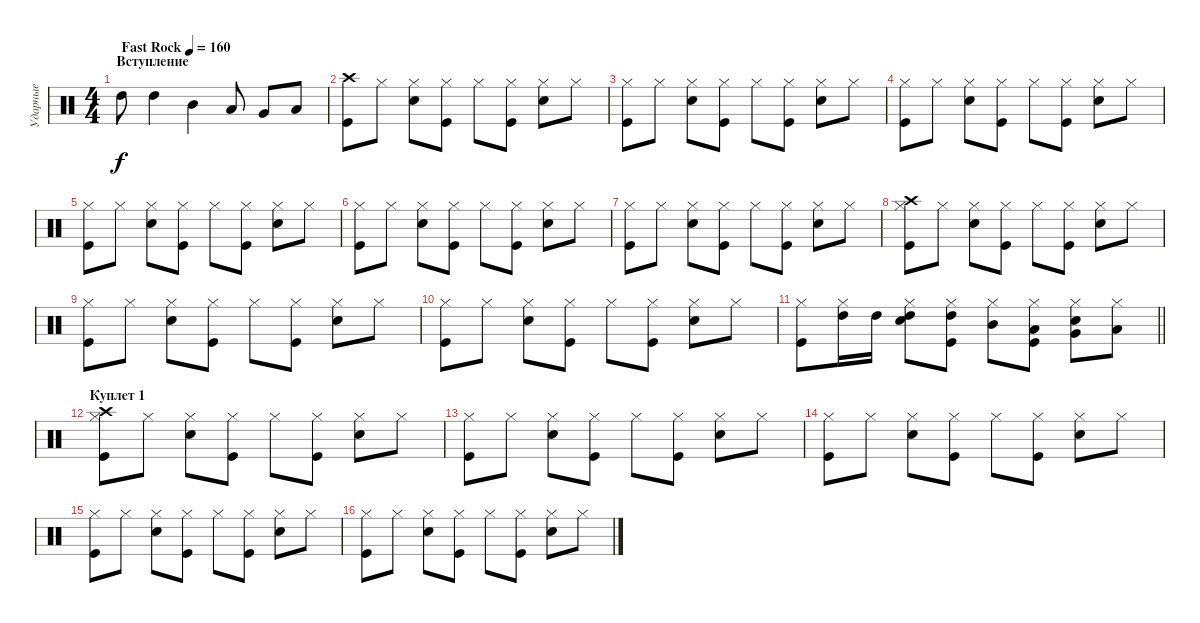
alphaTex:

\track ("Ударные" "Ударные") {instrument percussion}
\staff {score}
\articulation defaults
\ts (4 4)
\section ("" "Вступление")
\tempo (160 "Fast Rock")
\clef neutral
\ks c "High Tom (hit)".8{dy f} "High Tom (hit)".4 "Mid Tom (hit)".4 "Low Tom (hit)".8 "Very Low Tom (hit)".8 "Low Floor Tom (hit)".8
|
("Kick (hit)" "Crash high (hit)").8 "Hi-Hat (closed)".8 ("Snare (hit) 2" "Hi-Hat (closed)").8 ("Kick (hit)" "Hi-Hat (closed)").8 "Hi-Hat (closed)".8 ("Kick (hit)" "Hi-Hat (closed)").8 ("Snare (hit) 2" "Hi-Hat (closed)").8 "Hi-Hat (closed)".8 |
("Kick (hit)" "Hi-Hat (closed)").8 "Hi-Hat (closed)".8 ("Snare (hit) 2" "Hi-Hat (closed)").8 ("Kick (hit)" "Hi-Hat (closed)").8 "Hi-Hat (closed)".8 ("Kick (hit)" "Hi-Hat (closed)").8 ("Snare (hit) 2" "Hi-Hat (closed)").8 "Hi-Hat (closed)".8 |
("Kick (hit)" "Hi-Hat (closed)").8 "Hi-Hat (closed)".8 ("Snare (hit) 2" "Hi-Hat (closed)").8 ("Kick (hit)" "Hi-Hat (closed)").8 "Hi-Hat (closed)".8 ("Kick (hit)" "Hi-Hat (closed)").8 ("Snare (hit) 2" "Hi-Hat (closed)").8 "Hi-Hat (closed)".8 |
("Kick (hit)" "Hi-Hat (closed)").8 "Hi-Hat (closed)".8 ("Snare (hit) 2" "Hi-Hat (closed)").8 ("Kick (hit)" "Hi-Hat (closed)").8 "Hi-Hat (closed)".8 ("Kick (hit)" "Hi-Hat (closed)").8 ("Snare (hit) 2" "Hi-Hat (closed)").8 "Hi-Hat (closed)".8 |
("Kick (hit)" "Hi-Hat (closed)").8 "Hi-Hat (closed)".8 ("Snare (hit) 2" "Hi-Hat (closed)").8 ("Kick (hit)" "Hi-Hat (closed)").8 "Hi-Hat (closed)".8 ("Kick (hit)" "Hi-Hat (closed)").8 ("Snare (hit) 2" "Hi-Hat (closed)").8 "Hi-Hat (closed)".8 |
("Kick (hit)" "Hi-Hat (closed)").8 "Hi-Hat (closed)".8 ("Snare (hit) 2" "Hi-Hat (closed)").8 ("Kick (hit)" "Hi-Hat (closed)").8 "Hi-Hat (closed)".8 ("Kick (hit)" "Hi-Hat (closed)").8 ("Snare (hit) 2" "Hi-Hat (closed)").8 "Hi-Hat (closed)".8 |
("Kick (hit)" "Crash high (hit)" "Hi-Hat (closed)").8 "Hi-Hat (closed)".8 ("Snare (hit) 2" "Hi-Hat (closed)").8 ("Kick (hit)" "Hi-Hat (closed)").8 "Hi-Hat (closed)".8 ("Kick (hit)" "Hi-Hat (closed)").8 ("Snare (hit) 2" "Hi-Hat (closed)").8 "Hi-Hat (closed)".8 |
("Kick (hit)" "Hi-Hat (closed)").8 "Hi-Hat (closed)".8 ("Snare (hit) 2" "Hi-Hat (closed)").8 ("Kick (hit)" "Hi-Hat (closed)").8 "Hi-Hat (closed)".8 ("Kick (hit)" "Hi-Hat (closed)").8 ("Snare (hit) 2" "Hi-Hat (closed)").8 "Hi-Hat (closed)".8 |
("Kick (hit)" "Hi-Hat (closed)").8 "Hi-Hat (closed)".8 ("Snare (hit) 2" "Hi-Hat (closed)").8 ("Kick (hit)" "Hi-Hat (closed)").8 "Hi-Hat (closed)".8 ("Kick (hit)" "Hi-Hat (closed)").8 ("Snare (hit) 2" "Hi-Hat (closed)").8 "Hi-Hat (closed)".8 |
\barLineRight lightlight
("Kick (hit)" "Hi-Hat (closed)").8 ("High Tom (hit)" "Hi-Hat (closed)").16 "High Tom (hit)".16 ("Snare (hit) 2" "High Tom (hit)" "Hi-Hat (closed)").8 ("Kick (hit)" "High Tom (hit)" "Hi-Hat (closed)").8 ("Mid Tom (hit)" "Hi-Hat (closed)").8 ("Kick (hit)" "Low Tom (hit)" "Hi-Hat (closed)").8 ("Snare (hit) 2" "Very Low Tom (hit)" "Hi-Hat (closed)").8 ("Low Floor Tom (hit)" "Hi-Hat (closed)").8 |
\section ("" "Куплет 1")
("Kick (hit)" "Crash high (hit)" "Hi-Hat (closed)").8 "Hi-Hat (closed)".8 ("Snare (hit) 2" "Hi-Hat (closed)").8 ("Kick (hit)" "Hi-Hat (closed)").8 "Hi-Hat (closed)".8 ("Kick (hit)" "Hi-Hat (closed)").8 ("Snare (hit) 2" "Hi-Hat (closed)").8 "Hi-Hat (closed)".8 |
("Kick (hit)" "Hi-Hat (closed)").8 "Hi-Hat (closed)".8 ("Snare (hit) 2" "Hi-Hat (closed)").8 ("Kick (hit)" "Hi-Hat (closed)").8 "Hi-Hat (closed)".8 ("Kick (hit)" "Hi-Hat (closed)").8 ("Snare (hit) 2" "Hi-Hat (closed)").8 "Hi-Hat (closed)".8 |
("Kick (hit)" "Hi-Hat (closed)").8 "Hi-Hat (closed)".8 ("Snare (hit) 2" "Hi-Hat (closed)").8 ("Kick (hit)" "Hi-Hat (closed)").8 "Hi-Hat (closed)".8 ("Kick (hit)" "Hi-Hat (closed)").8 ("Snare (hit) 2" "Hi-Hat (closed)").8 "Hi-Hat (closed)".8 |
("Kick (hit)" "Hi-Hat (closed)").8 "Hi-Hat (closed)".8 ("Snare (hit) 2" "Hi-Hat (closed)").8 ("Kick (hit)" "Hi-Hat (closed)").8 "Hi-Hat (closed)".8 ("Kick (hit)" "Hi-Hat (closed)").8 ("Snare (hit) 2" "Hi-Hat (closed)").8 "Hi-Hat (closed)".8 |
("Kick (hit)" "Hi-Hat (closed)").8 "Hi-Hat (closed)".8 ("Snare (hit) 2" "Hi-Hat (closed)").8 ("Kick (hit)" "Hi-Hat (closed)").8 "Hi-Hat (closed)".8 ("Kick (hit)" "Hi-Hat (closed)").8 ("Snare (hit) 2" "Hi-Hat (closed)").8 "Hi-Hat (closed)".8
